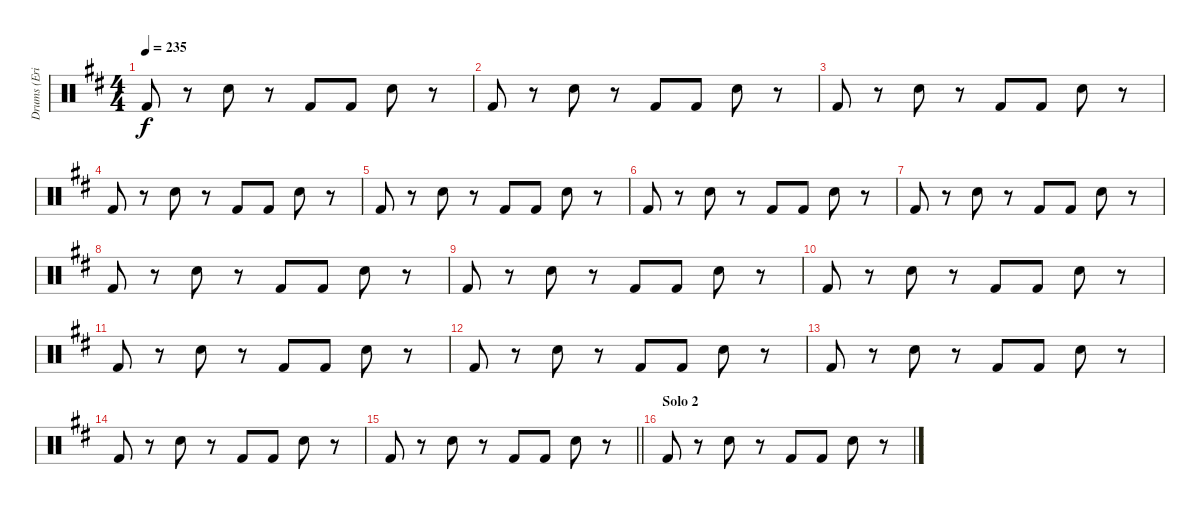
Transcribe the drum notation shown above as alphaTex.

\track ("Drums (Eric Carr)" "Drums (Eri") {instrument percussion}
\staff {score}
\articulation defaults
\ts (4 4)
\tempo 235
\clef neutral
\ks d "Kick (hit) 2".8{dy f}
r.8 "Snare (hit) 2".8 r.8 "Kick (hit) 2".8 "Kick (hit) 2".8 "Snare (hit) 2".8 r.8 |
"Kick (hit) 2".8 r.8 "Snare (hit) 2".8 r.8 "Kick (hit) 2".8 "Kick (hit) 2".8 "Snare (hit) 2".8 r.8 |
"Kick (hit) 2".8 r.8 "Snare (hit) 2".8 r.8 "Kick (hit) 2".8 "Kick (hit) 2".8 "Snare (hit) 2".8 r.8 |
"Kick (hit) 2".8 r.8 "Snare (hit) 2".8 r.8 "Kick (hit) 2".8 "Kick (hit) 2".8 "Snare (hit) 2".8 r.8 |
"Kick (hit) 2".8 r.8 "Snare (hit) 2".8 r.8 "Kick (hit) 2".8 "Kick (hit) 2".8 "Snare (hit) 2".8 r.8 |
"Kick (hit) 2".8 r.8 "Snare (hit) 2".8 r.8 "Kick (hit) 2".8 "Kick (hit) 2".8 "Snare (hit) 2".8 r.8 |
"Kick (hit) 2".8 r.8 "Snare (hit) 2".8 r.8 "Kick (hit) 2".8 "Kick (hit) 2".8 "Snare (hit) 2".8 r.8 |
"Kick (hit) 2".8 r.8 "Snare (hit) 2".8 r.8 "Kick (hit) 2".8 "Kick (hit) 2".8 "Snare (hit) 2".8 r.8 |
"Kick (hit) 2".8 r.8 "Snare (hit) 2".8 r.8 "Kick (hit) 2".8 "Kick (hit) 2".8 "Snare (hit) 2".8 r.8 |
"Kick (hit) 2".8 r.8 "Snare (hit) 2".8 r.8 "Kick (hit) 2".8 "Kick (hit) 2".8 "Snare (hit) 2".8 r.8 |
"Kick (hit) 2".8 r.8 "Snare (hit) 2".8 r.8 "Kick (hit) 2".8 "Kick (hit) 2".8 "Snare (hit) 2".8 r.8 |
"Kick (hit) 2".8 r.8 "Snare (hit) 2".8 r.8 "Kick (hit) 2".8 "Kick (hit) 2".8 "Snare (hit) 2".8 r.8 |
"Kick (hit) 2".8 r.8 "Snare (hit) 2".8 r.8 "Kick (hit) 2".8 "Kick (hit) 2".8 "Snare (hit) 2".8 r.8 |
"Kick (hit) 2".8 r.8 "Snare (hit) 2".8 r.8 "Kick (hit) 2".8 "Kick (hit) 2".8 "Snare (hit) 2".8 r.8 |
\barLineRight lightlight "Kick (hit) 2".8
r.8 "Snare (hit) 2".8 r.8 "Kick (hit) 2".8 "Kick (hit) 2".8 "Snare (hit) 2".8 r.8 |
\section ("" "Solo 2")
"Kick (hit) 2".8 r.8 "Snare (hit) 2".8 r.8 "Kick (hit) 2".8 "Kick (hit) 2".8 "Snare (hit) 2".8 r.8
